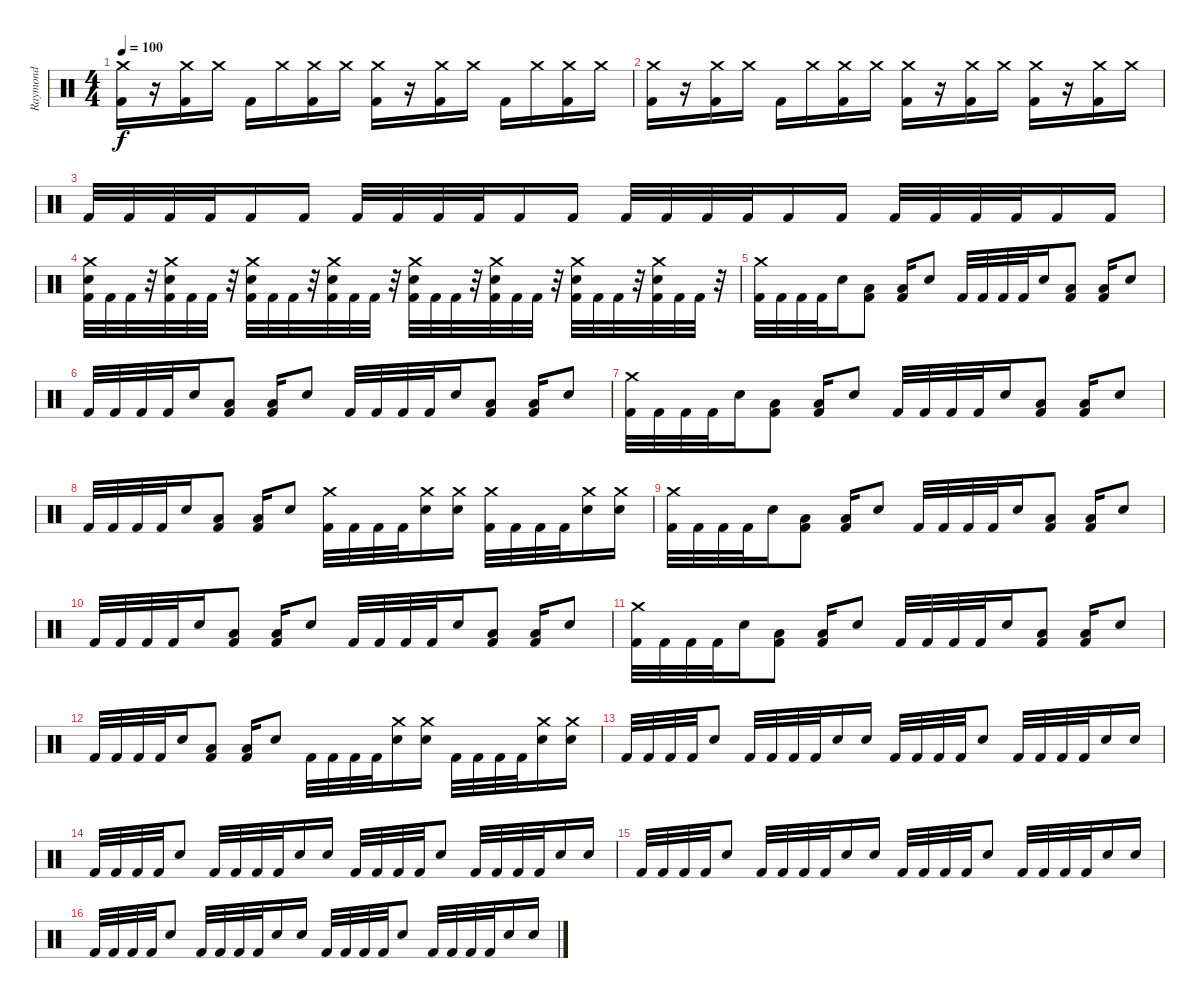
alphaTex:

\track ("Raymond" "Raymond") {instrument percussion}
\staff {score}
\articulation defaults
\ts (4 4)
\tempo 100
\clef neutral
\ks c
("Crash medium (hit)" "Kick (hit) 2").16{dy f} r.16 ("Crash medium (hit)" "Kick (hit) 2").16 "Crash medium (hit)".16 "Kick (hit) 2".16 "Crash medium (hit)".16 ("Crash medium (hit)" "Kick (hit) 2").16 "Crash medium (hit)".16 ("Crash medium (hit)" "Kick (hit) 2").16 r.16 ("Crash medium (hit)" "Kick (hit) 2").16 "Crash medium (hit)".16 "Kick (hit) 2".16 "Crash medium (hit)".16 ("Crash medium (hit)" "Kick (hit) 2").16 "Crash medium (hit)".16 |
("Crash medium (hit)" "Kick (hit) 2").16 r.16 ("Crash medium (hit)" "Kick (hit) 2").16 "Crash medium (hit)".16 "Kick (hit) 2".16 "Crash medium (hit)".16 ("Crash medium (hit)" "Kick (hit) 2").16 "Crash medium (hit)".16 ("Crash medium (hit)" "Kick (hit) 2").16 r.16 ("Crash medium (hit)" "Kick (hit) 2").16 "Crash medium (hit)".16 ("Crash medium (hit)" "Kick (hit) 2").16 r.16 ("Crash medium (hit)" "Kick (hit) 2").16 "Crash medium (hit)".16 |
"Kick (hit) 2".32 "Kick (hit) 2".32 "Kick (hit) 2".32 "Kick (hit) 2".32 "Kick (hit) 2".16 "Kick (hit) 2".16 "Kick (hit) 2".32 "Kick (hit) 2".32 "Kick (hit) 2".32 "Kick (hit) 2".32 "Kick (hit) 2".16 "Kick (hit) 2".16 "Kick (hit) 2".32 "Kick (hit) 2".32 "Kick (hit) 2".32 "Kick (hit) 2".32 "Kick (hit) 2".16 "Kick (hit) 2".16 "Kick (hit) 2".32 "Kick (hit) 2".32 "Kick (hit) 2".32 "Kick (hit) 2".32 "Kick (hit) 2".16 "Kick (hit) 2".16 |
("Crash medium (hit)" "Snare (hit) 2" "Kick (hit) 2").32 "Kick (hit) 2".32 "Kick (hit) 2".32 r.32 ("Crash medium (hit)" "Snare (hit) 2" "Kick (hit) 2").32 "Kick (hit) 2".32 "Kick (hit) 2".32 r.32 ("Crash medium (hit)" "Snare (hit) 2" "Kick (hit) 2").32 "Kick (hit) 2".32 "Kick (hit) 2".32 r.32 ("Crash medium (hit)" "Snare (hit) 2" "Kick (hit) 2").32 "Kick (hit) 2".32 "Kick (hit) 2".32 r.32 ("Crash medium (hit)" "Snare (hit) 2" "Kick (hit) 2").32 "Kick (hit) 2".32 "Kick (hit) 2".32 r.32 ("Crash medium (hit)" "Snare (hit) 2" "Kick (hit) 2").32 "Kick (hit) 2".32 "Kick (hit) 2".32 r.32 ("Crash medium (hit)" "Snare (hit) 2" "Kick (hit) 2").32 "Kick (hit) 2".32 "Kick (hit) 2".32 r.32 ("Crash medium (hit)" "Snare (hit) 2" "Kick (hit) 2").32 "Kick (hit) 2".32 "Kick (hit) 2".32 r.32 |
("Crash medium (hit)" "Kick (hit) 2").32 "Kick (hit) 2".32 "Kick (hit) 2".32 "Kick (hit) 2".32 "Snare (hit) 2".16 ("Low Floor Tom (hit)" "Kick (hit) 2").8 ("Low Floor Tom (hit)" "Kick (hit) 2").16 "Snare (hit) 2".8 "Kick (hit) 2".32 "Kick (hit) 2".32 "Kick (hit) 2".32 "Kick (hit) 2".32 "Snare (hit) 2".16 ("Low Floor Tom (hit)" "Kick (hit) 2").8 ("Low Floor Tom (hit)" "Kick (hit) 2").16 "Snare (hit) 2".8 |
"Kick (hit) 2".32 "Kick (hit) 2".32 "Kick (hit) 2".32 "Kick (hit) 2".32 "Snare (hit) 2".16 ("Low Floor Tom (hit)" "Kick (hit) 2").8 ("Low Floor Tom (hit)" "Kick (hit) 2").16 "Snare (hit) 2".8 "Kick (hit) 2".32 "Kick (hit) 2".32 "Kick (hit) 2".32 "Kick (hit) 2".32 "Snare (hit) 2".16 ("Low Floor Tom (hit)" "Kick (hit) 2").8 ("Low Floor Tom (hit)" "Kick (hit) 2").16 "Snare (hit) 2".8 |
("Crash medium (hit)" "Kick (hit) 2").32 "Kick (hit) 2".32 "Kick (hit) 2".32 "Kick (hit) 2".32 "Snare (hit) 2".16 ("Low Floor Tom (hit)" "Kick (hit) 2").8 ("Low Floor Tom (hit)" "Kick (hit) 2").16 "Snare (hit) 2".8 "Kick (hit) 2".32 "Kick (hit) 2".32 "Kick (hit) 2".32 "Kick (hit) 2".32 "Snare (hit) 2".16 ("Low Floor Tom (hit)" "Kick (hit) 2").8 ("Low Floor Tom (hit)" "Kick (hit) 2").16 "Snare (hit) 2".8 |
"Kick (hit) 2".32 "Kick (hit) 2".32 "Kick (hit) 2".32 "Kick (hit) 2".32 "Snare (hit) 2".16 ("Low Floor Tom (hit)" "Kick (hit) 2").8 ("Low Floor Tom (hit)" "Kick (hit) 2").16 "Snare (hit) 2".8 ("Crash medium (hit)" "Kick (hit) 2").32 "Kick (hit) 2".32 "Kick (hit) 2".32 "Kick (hit) 2".32 ("Crash medium (hit)" "Snare (hit) 2").16 ("Crash medium (hit)" "Snare (hit) 2").16 ("Crash medium (hit)" "Kick (hit) 2").32 "Kick (hit) 2".32 "Kick (hit) 2".32 "Kick (hit) 2".32 ("Crash medium (hit)" "Snare (hit) 2").16 ("Crash medium (hit)" "Snare (hit) 2").16 |
("Crash medium (hit)" "Kick (hit) 2").32 "Kick (hit) 2".32 "Kick (hit) 2".32 "Kick (hit) 2".32 "Snare (hit) 2".16 ("Low Floor Tom (hit)" "Kick (hit) 2").8 ("Low Floor Tom (hit)" "Kick (hit) 2").16 "Snare (hit) 2".8 "Kick (hit) 2".32 "Kick (hit) 2".32 "Kick (hit) 2".32 "Kick (hit) 2".32 "Snare (hit) 2".16 ("Low Floor Tom (hit)" "Kick (hit) 2").8 ("Low Floor Tom (hit)" "Kick (hit) 2").16 "Snare (hit) 2".8 |
"Kick (hit) 2".32 "Kick (hit) 2".32 "Kick (hit) 2".32 "Kick (hit) 2".32 "Snare (hit) 2".16 ("Low Floor Tom (hit)" "Kick (hit) 2").8 ("Low Floor Tom (hit)" "Kick (hit) 2").16 "Snare (hit) 2".8 "Kick (hit) 2".32 "Kick (hit) 2".32 "Kick (hit) 2".32 "Kick (hit) 2".32 "Snare (hit) 2".16 ("Low Floor Tom (hit)" "Kick (hit) 2").8 ("Low Floor Tom (hit)" "Kick (hit) 2").16 "Snare (hit) 2".8 |
("Crash medium (hit)" "Kick (hit) 2").32 "Kick (hit) 2".32 "Kick (hit) 2".32 "Kick (hit) 2".32 "Snare (hit) 2".16 ("Low Floor Tom (hit)" "Kick (hit) 2").8 ("Low Floor Tom (hit)" "Kick (hit) 2").16 "Snare (hit) 2".8 "Kick (hit) 2".32 "Kick (hit) 2".32 "Kick (hit) 2".32 "Kick (hit) 2".32 "Snare (hit) 2".16 ("Low Floor Tom (hit)" "Kick (hit) 2").8 ("Low Floor Tom (hit)" "Kick (hit) 2").16 "Snare (hit) 2".8 |
"Kick (hit) 2".32 "Kick (hit) 2".32 "Kick (hit) 2".32 "Kick (hit) 2".32 "Snare (hit) 2".16 ("Low Floor Tom (hit)" "Kick (hit) 2").8 ("Low Floor Tom (hit)" "Kick (hit) 2").16 "Snare (hit) 2".8 "Kick (hit) 2".32 "Kick (hit) 2".32 "Kick (hit) 2".32 "Kick (hit) 2".32 ("Crash medium (hit)" "Snare (hit) 2").16 ("Crash medium (hit)" "Snare (hit) 2").16 "Kick (hit) 2".32 "Kick (hit) 2".32 "Kick (hit) 2".32 "Kick (hit) 2".32 ("Crash medium (hit)" "Snare (hit) 2").16 ("Crash medium (hit)" "Snare (hit) 2").16 |
"Kick (hit) 2".32 "Kick (hit) 2".32 "Kick (hit) 2".32 "Kick (hit) 2".32 "Snare (hit) 2".8 "Kick (hit) 2".32 "Kick (hit) 2".32 "Kick (hit) 2".32 "Kick (hit) 2".32 "Snare (hit) 2".16 "Snare (hit) 2".16 "Kick (hit) 2".32 "Kick (hit) 2".32 "Kick (hit) 2".32 "Kick (hit) 2".32 "Snare (hit) 2".8 "Kick (hit) 2".32 "Kick (hit) 2".32 "Kick (hit) 2".32 "Kick (hit) 2".32 "Snare (hit) 2".16 "Snare (hit) 2".16 |
"Kick (hit) 2".32 "Kick (hit) 2".32 "Kick (hit) 2".32 "Kick (hit) 2".32 "Snare (hit) 2".8 "Kick (hit) 2".32 "Kick (hit) 2".32 "Kick (hit) 2".32 "Kick (hit) 2".32 "Snare (hit) 2".16 "Snare (hit) 2".16 "Kick (hit) 2".32 "Kick (hit) 2".32 "Kick (hit) 2".32 "Kick (hit) 2".32 "Snare (hit) 2".8 "Kick (hit) 2".32 "Kick (hit) 2".32 "Kick (hit) 2".32 "Kick (hit) 2".32 "Snare (hit) 2".16 "Snare (hit) 2".16 |
"Kick (hit) 2".32 "Kick (hit) 2".32 "Kick (hit) 2".32 "Kick (hit) 2".32 "Snare (hit) 2".8 "Kick (hit) 2".32 "Kick (hit) 2".32 "Kick (hit) 2".32 "Kick (hit) 2".32 "Snare (hit) 2".16 "Snare (hit) 2".16 "Kick (hit) 2".32 "Kick (hit) 2".32 "Kick (hit) 2".32 "Kick (hit) 2".32 "Snare (hit) 2".8 "Kick (hit) 2".32 "Kick (hit) 2".32 "Kick (hit) 2".32 "Kick (hit) 2".32 "Snare (hit) 2".16 "Snare (hit) 2".16 |
"Kick (hit) 2".32 "Kick (hit) 2".32 "Kick (hit) 2".32 "Kick (hit) 2".32 "Snare (hit) 2".8 "Kick (hit) 2".32 "Kick (hit) 2".32 "Kick (hit) 2".32 "Kick (hit) 2".32 "Snare (hit) 2".16 "Snare (hit) 2".16 "Kick (hit) 2".32 "Kick (hit) 2".32 "Kick (hit) 2".32 "Kick (hit) 2".32 "Snare (hit) 2".8 "Kick (hit) 2".32 "Kick (hit) 2".32 "Kick (hit) 2".32 "Kick (hit) 2".32 "Snare (hit) 2".16 "Snare (hit) 2".16
